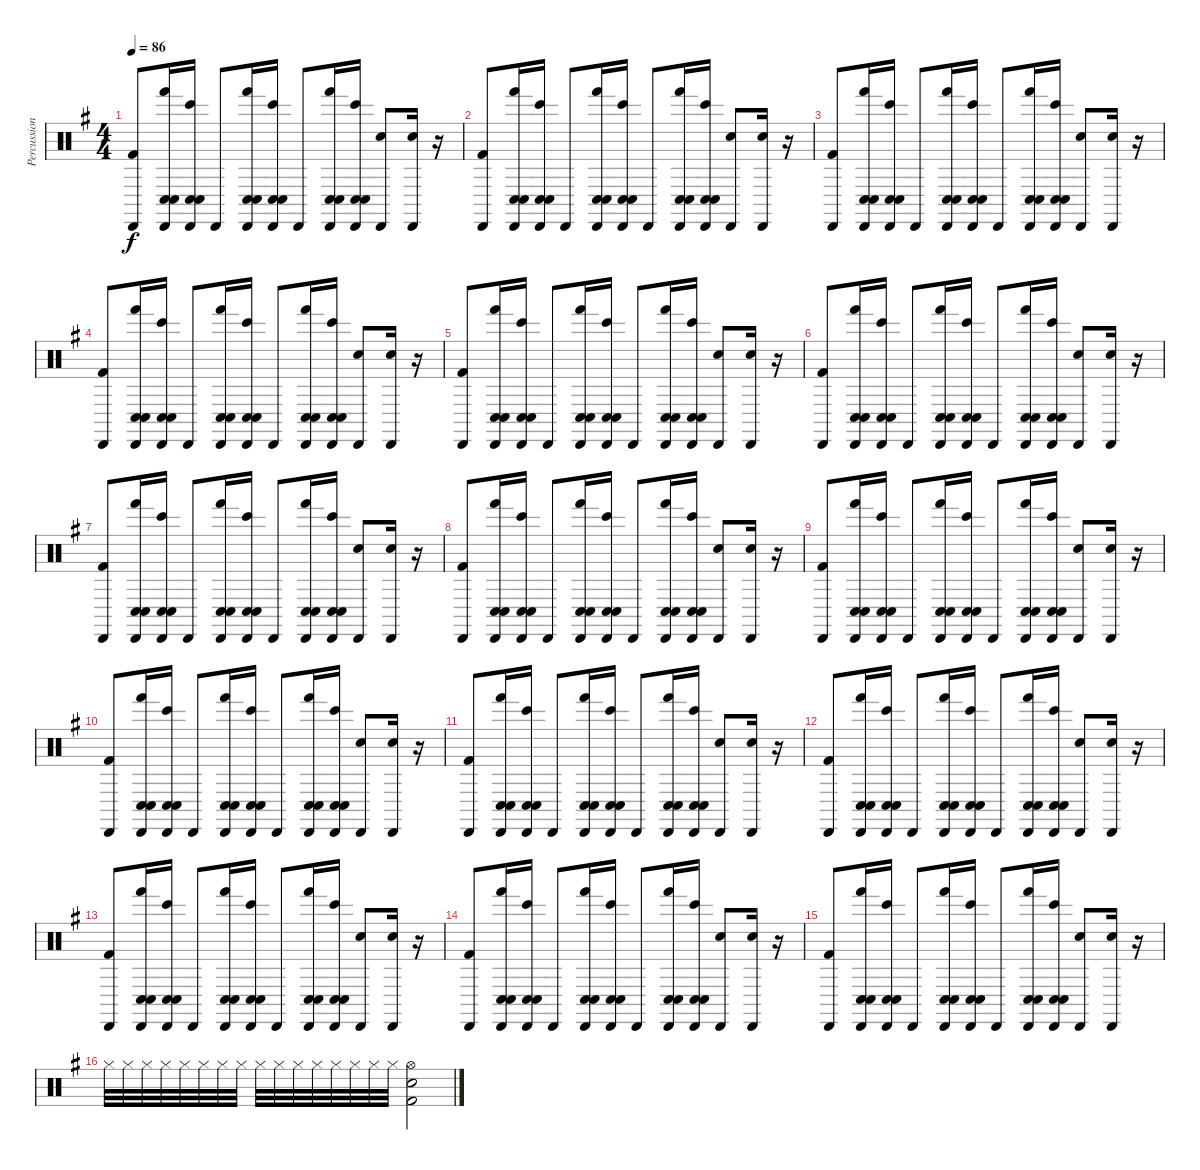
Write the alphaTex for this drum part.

\track ("Percussion" "Percussion") {instrument percussion}
\staff {score}
\articulation defaults
\ts (4 4)
\tempo 86
\clef neutral
\ks g
("Cabasa (hit)" "Kick (hit) 2").8{dy f} ("Cabasa (hit)" "Conga low (hit)" "Conga low (hit)" "Hand (hit)").16 ("Cabasa (hit)" "Conga low (hit)" "Conga low (hit)" "Bongo High (hit)").16 "Cabasa (hit)".8 ("Cabasa (hit)" "Conga low (hit)" "Conga low (hit)" "Hand (hit)").16 ("Cabasa (hit)" "Conga low (hit)" "Conga low (hit)" "Bongo High (hit)").16 "Cabasa (hit)".8 ("Cabasa (hit)" "Conga low (hit)" "Conga low (hit)" "Hand (hit)").16 ("Cabasa (hit)" "Conga low (hit)" "Conga low (hit)" "Bongo High (hit)").16 ("Cabasa (hit)" "Electric Snare (hit)").8 ("Cabasa (hit)" "Electric Snare (hit)").16 r.16 |
("Cabasa (hit)" "Kick (hit) 2").8 ("Cabasa (hit)" "Conga low (hit)" "Conga low (hit)" "Hand (hit)").16 ("Cabasa (hit)" "Conga low (hit)" "Conga low (hit)" "Bongo High (hit)").16 "Cabasa (hit)".8 ("Cabasa (hit)" "Conga low (hit)" "Conga low (hit)" "Hand (hit)").16 ("Cabasa (hit)" "Conga low (hit)" "Conga low (hit)" "Bongo High (hit)").16 "Cabasa (hit)".8 ("Cabasa (hit)" "Conga low (hit)" "Conga low (hit)" "Hand (hit)").16 ("Cabasa (hit)" "Conga low (hit)" "Conga low (hit)" "Bongo High (hit)").16 ("Cabasa (hit)" "Electric Snare (hit)").8 ("Cabasa (hit)" "Electric Snare (hit)").16 r.16 |
("Cabasa (hit)" "Kick (hit) 2").8 ("Cabasa (hit)" "Conga low (hit)" "Conga low (hit)" "Hand (hit)").16 ("Cabasa (hit)" "Conga low (hit)" "Conga low (hit)" "Bongo High (hit)").16 "Cabasa (hit)".8 ("Cabasa (hit)" "Conga low (hit)" "Conga low (hit)" "Hand (hit)").16 ("Cabasa (hit)" "Conga low (hit)" "Conga low (hit)" "Bongo High (hit)").16 "Cabasa (hit)".8 ("Cabasa (hit)" "Conga low (hit)" "Conga low (hit)" "Hand (hit)").16 ("Cabasa (hit)" "Conga low (hit)" "Conga low (hit)" "Bongo High (hit)").16 ("Cabasa (hit)" "Electric Snare (hit)").8 ("Cabasa (hit)" "Electric Snare (hit)").16 r.16 |
("Cabasa (hit)" "Kick (hit) 2").8 ("Cabasa (hit)" "Conga low (hit)" "Conga low (hit)" "Hand (hit)").16 ("Cabasa (hit)" "Conga low (hit)" "Conga low (hit)" "Bongo High (hit)").16 "Cabasa (hit)".8 ("Cabasa (hit)" "Conga low (hit)" "Conga low (hit)" "Hand (hit)").16 ("Cabasa (hit)" "Conga low (hit)" "Conga low (hit)" "Bongo High (hit)").16 "Cabasa (hit)".8 ("Cabasa (hit)" "Conga low (hit)" "Conga low (hit)" "Hand (hit)").16 ("Cabasa (hit)" "Conga low (hit)" "Conga low (hit)" "Bongo High (hit)").16 ("Cabasa (hit)" "Electric Snare (hit)").8 ("Cabasa (hit)" "Electric Snare (hit)").16 r.16 |
("Cabasa (hit)" "Kick (hit) 2").8 ("Cabasa (hit)" "Conga low (hit)" "Conga low (hit)" "Hand (hit)").16 ("Cabasa (hit)" "Conga low (hit)" "Conga low (hit)" "Bongo High (hit)").16 "Cabasa (hit)".8 ("Cabasa (hit)" "Conga low (hit)" "Conga low (hit)" "Hand (hit)").16 ("Cabasa (hit)" "Conga low (hit)" "Conga low (hit)" "Bongo High (hit)").16 "Cabasa (hit)".8 ("Cabasa (hit)" "Conga low (hit)" "Conga low (hit)" "Hand (hit)").16 ("Cabasa (hit)" "Conga low (hit)" "Conga low (hit)" "Bongo High (hit)").16 ("Cabasa (hit)" "Electric Snare (hit)").8 ("Cabasa (hit)" "Electric Snare (hit)").16 r.16 |
("Cabasa (hit)" "Kick (hit) 2").8 ("Cabasa (hit)" "Conga low (hit)" "Conga low (hit)" "Hand (hit)").16 ("Cabasa (hit)" "Conga low (hit)" "Conga low (hit)" "Bongo High (hit)").16 "Cabasa (hit)".8 ("Cabasa (hit)" "Conga low (hit)" "Conga low (hit)" "Hand (hit)").16 ("Cabasa (hit)" "Conga low (hit)" "Conga low (hit)" "Bongo High (hit)").16 "Cabasa (hit)".8 ("Cabasa (hit)" "Conga low (hit)" "Conga low (hit)" "Hand (hit)").16 ("Cabasa (hit)" "Conga low (hit)" "Conga low (hit)" "Bongo High (hit)").16 ("Cabasa (hit)" "Electric Snare (hit)").8 ("Cabasa (hit)" "Electric Snare (hit)").16 r.16 |
("Cabasa (hit)" "Kick (hit) 2").8 ("Cabasa (hit)" "Conga low (hit)" "Conga low (hit)" "Hand (hit)").16 ("Cabasa (hit)" "Conga low (hit)" "Conga low (hit)" "Bongo High (hit)").16 "Cabasa (hit)".8 ("Cabasa (hit)" "Conga low (hit)" "Conga low (hit)" "Hand (hit)").16 ("Cabasa (hit)" "Conga low (hit)" "Conga low (hit)" "Bongo High (hit)").16 "Cabasa (hit)".8 ("Cabasa (hit)" "Conga low (hit)" "Conga low (hit)" "Hand (hit)").16 ("Cabasa (hit)" "Conga low (hit)" "Conga low (hit)" "Bongo High (hit)").16 ("Cabasa (hit)" "Electric Snare (hit)").8 ("Cabasa (hit)" "Electric Snare (hit)").16 r.16 |
("Cabasa (hit)" "Kick (hit) 2").8 ("Cabasa (hit)" "Conga low (hit)" "Conga low (hit)" "Hand (hit)").16 ("Cabasa (hit)" "Conga low (hit)" "Conga low (hit)" "Bongo High (hit)").16 "Cabasa (hit)".8 ("Cabasa (hit)" "Conga low (hit)" "Conga low (hit)" "Hand (hit)").16 ("Cabasa (hit)" "Conga low (hit)" "Conga low (hit)" "Bongo High (hit)").16 "Cabasa (hit)".8 ("Cabasa (hit)" "Conga low (hit)" "Conga low (hit)" "Hand (hit)").16 ("Cabasa (hit)" "Conga low (hit)" "Conga low (hit)" "Bongo High (hit)").16 ("Cabasa (hit)" "Electric Snare (hit)").8 ("Cabasa (hit)" "Electric Snare (hit)").16 r.16 |
("Cabasa (hit)" "Kick (hit) 2").8 ("Cabasa (hit)" "Conga low (hit)" "Conga low (hit)" "Hand (hit)").16 ("Cabasa (hit)" "Conga low (hit)" "Conga low (hit)" "Bongo High (hit)").16 "Cabasa (hit)".8 ("Cabasa (hit)" "Conga low (hit)" "Conga low (hit)" "Hand (hit)").16 ("Cabasa (hit)" "Conga low (hit)" "Conga low (hit)" "Bongo High (hit)").16 "Cabasa (hit)".8 ("Cabasa (hit)" "Conga low (hit)" "Conga low (hit)" "Hand (hit)").16 ("Cabasa (hit)" "Conga low (hit)" "Conga low (hit)" "Bongo High (hit)").16 ("Cabasa (hit)" "Electric Snare (hit)").8 ("Cabasa (hit)" "Electric Snare (hit)").16 r.16 |
("Cabasa (hit)" "Kick (hit) 2").8 ("Cabasa (hit)" "Conga low (hit)" "Conga low (hit)" "Hand (hit)").16 ("Cabasa (hit)" "Conga low (hit)" "Conga low (hit)" "Bongo High (hit)").16 "Cabasa (hit)".8 ("Cabasa (hit)" "Conga low (hit)" "Conga low (hit)" "Hand (hit)").16 ("Cabasa (hit)" "Conga low (hit)" "Conga low (hit)" "Bongo High (hit)").16 "Cabasa (hit)".8 ("Cabasa (hit)" "Conga low (hit)" "Conga low (hit)" "Hand (hit)").16 ("Cabasa (hit)" "Conga low (hit)" "Conga low (hit)" "Bongo High (hit)").16 ("Cabasa (hit)" "Electric Snare (hit)").8 ("Cabasa (hit)" "Electric Snare (hit)").16 r.16 |
("Cabasa (hit)" "Kick (hit) 2").8 ("Cabasa (hit)" "Conga low (hit)" "Conga low (hit)" "Hand (hit)").16 ("Cabasa (hit)" "Conga low (hit)" "Conga low (hit)" "Bongo High (hit)").16 "Cabasa (hit)".8 ("Cabasa (hit)" "Conga low (hit)" "Conga low (hit)" "Hand (hit)").16 ("Cabasa (hit)" "Conga low (hit)" "Conga low (hit)" "Bongo High (hit)").16 "Cabasa (hit)".8 ("Cabasa (hit)" "Conga low (hit)" "Conga low (hit)" "Hand (hit)").16 ("Cabasa (hit)" "Conga low (hit)" "Conga low (hit)" "Bongo High (hit)").16 ("Cabasa (hit)" "Electric Snare (hit)").8 ("Cabasa (hit)" "Electric Snare (hit)").16 r.16 |
("Cabasa (hit)" "Kick (hit) 2").8 ("Cabasa (hit)" "Conga low (hit)" "Conga low (hit)" "Hand (hit)").16 ("Cabasa (hit)" "Conga low (hit)" "Conga low (hit)" "Bongo High (hit)").16 "Cabasa (hit)".8 ("Cabasa (hit)" "Conga low (hit)" "Conga low (hit)" "Hand (hit)").16 ("Cabasa (hit)" "Conga low (hit)" "Conga low (hit)" "Bongo High (hit)").16 "Cabasa (hit)".8 ("Cabasa (hit)" "Conga low (hit)" "Conga low (hit)" "Hand (hit)").16 ("Cabasa (hit)" "Conga low (hit)" "Conga low (hit)" "Bongo High (hit)").16 ("Cabasa (hit)" "Electric Snare (hit)").8 ("Cabasa (hit)" "Electric Snare (hit)").16 r.16 |
("Cabasa (hit)" "Kick (hit) 2").8 ("Cabasa (hit)" "Conga low (hit)" "Conga low (hit)" "Hand (hit)").16 ("Cabasa (hit)" "Conga low (hit)" "Conga low (hit)" "Bongo High (hit)").16 "Cabasa (hit)".8 ("Cabasa (hit)" "Conga low (hit)" "Conga low (hit)" "Hand (hit)").16 ("Cabasa (hit)" "Conga low (hit)" "Conga low (hit)" "Bongo High (hit)").16 "Cabasa (hit)".8 ("Cabasa (hit)" "Conga low (hit)" "Conga low (hit)" "Hand (hit)").16 ("Cabasa (hit)" "Conga low (hit)" "Conga low (hit)" "Bongo High (hit)").16 ("Cabasa (hit)" "Electric Snare (hit)").8 ("Cabasa (hit)" "Electric Snare (hit)").16 r.16 |
("Cabasa (hit)" "Kick (hit) 2").8 ("Cabasa (hit)" "Conga low (hit)" "Conga low (hit)" "Hand (hit)").16 ("Cabasa (hit)" "Conga low (hit)" "Conga low (hit)" "Bongo High (hit)").16 "Cabasa (hit)".8 ("Cabasa (hit)" "Conga low (hit)" "Conga low (hit)" "Hand (hit)").16 ("Cabasa (hit)" "Conga low (hit)" "Conga low (hit)" "Bongo High (hit)").16 "Cabasa (hit)".8 ("Cabasa (hit)" "Conga low (hit)" "Conga low (hit)" "Hand (hit)").16 ("Cabasa (hit)" "Conga low (hit)" "Conga low (hit)" "Bongo High (hit)").16 ("Cabasa (hit)" "Electric Snare (hit)").8 ("Cabasa (hit)" "Electric Snare (hit)").16 r.16 |
("Cabasa (hit)" "Kick (hit) 2").8 ("Cabasa (hit)" "Conga low (hit)" "Conga low (hit)" "Hand (hit)").16 ("Cabasa (hit)" "Conga low (hit)" "Conga low (hit)" "Bongo High (hit)").16 "Cabasa (hit)".8 ("Cabasa (hit)" "Conga low (hit)" "Conga low (hit)" "Hand (hit)").16 ("Cabasa (hit)" "Conga low (hit)" "Conga low (hit)" "Bongo High (hit)").16 "Cabasa (hit)".8 ("Cabasa (hit)" "Conga low (hit)" "Conga low (hit)" "Hand (hit)").16 ("Cabasa (hit)" "Conga low (hit)" "Conga low (hit)" "Bongo High (hit)").16 ("Cabasa (hit)" "Electric Snare (hit)").8 ("Cabasa (hit)" "Electric Snare (hit)").16 r.16 |
"Hi-Hat (closed)".32{volume 1} "Hi-Hat (closed)".32{volume 2} "Hi-Hat (closed)".32{volume 3} "Hi-Hat (closed)".32{volume 4} "Hi-Hat (closed)".32{volume 5} "Hi-Hat (closed)".32{volume 6} "Hi-Hat (closed)".32{volume 7} "Hi-Hat (closed)".32{volume 8} "Hi-Hat (closed)".32{volume 9} "Hi-Hat (closed)".32{volume 10} "Hi-Hat (closed)".32{volume 11} "Hi-Hat (closed)".32{volume 12} "Hi-Hat (closed)".32{volume 13} "Hi-Hat (closed)".32{volume 14} "Hi-Hat (closed)".32{volume 15} "Hi-Hat (closed)".32{volume 16} ("Hi-Hat (open)" "Electric Snare (hit)" "Kick (hit) 2").2
